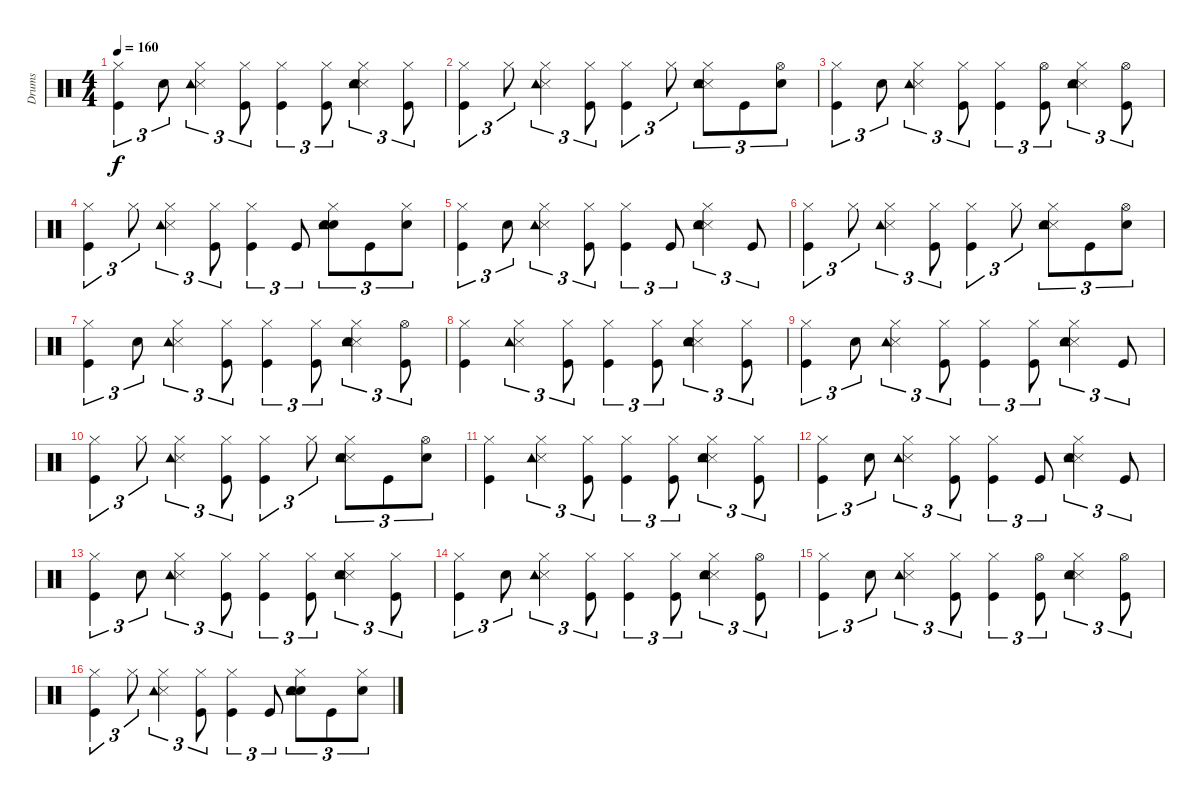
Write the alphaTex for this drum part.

\track ("Drums   " "Drums   ") {instrument percussion}
\staff {score}
\articulation defaults
\ts (4 4)
\tempo 160
\clef neutral
\ks c
("Kick (hit)" "Hi-Hat (closed)").4{tu (3 2) dy f} "Snare (hit) 2".8{tu (3 2)} ("Snare (side stick) 3" "Tambourine (hit)" "Hi-Hat (closed)").4{tu (3 2)} ("Kick (hit)" "Hi-Hat (closed)").8{tu (3 2)} ("Kick (hit)" "Hi-Hat (closed)").4{tu (3 2)} ("Kick (hit)" "Hi-Hat (closed)").8{tu (3 2)} ("Snare (side stick) 3" "Hand Clap (hit)" "Tambourine (hit)" "Hi-Hat (closed)").4{tu (3 2)} ("Kick (hit)" "Hi-Hat (closed)").8{tu (3 2)} |
("Kick (hit)" "Hi-Hat (closed)").4{tu (3 2)} "Hi-Hat (closed)".8{tu (3 2)} ("Snare (side stick) 3" "Tambourine (hit)" "Hi-Hat (closed)").4{tu (3 2)} ("Kick (hit)" "Hi-Hat (closed)").8{tu (3 2)} ("Kick (hit)" "Hi-Hat (closed)").4{tu (3 2)} "Hi-Hat (closed)".8{tu (3 2)} ("Snare (side stick) 3" "Hand Clap (hit)" "Tambourine (hit)" "Hi-Hat (closed)").8{tu (3 2)} "Kick (hit)".8{tu (3 2)} ("Snare (hit) 2" "Hi-Hat (open)").8{tu (3 2)} |
("Kick (hit)" "Hi-Hat (closed)").4{tu (3 2)} "Snare (hit) 2".8{tu (3 2)} ("Snare (side stick) 3" "Tambourine (hit)" "Hi-Hat (closed)").4{tu (3 2)} ("Kick (hit)" "Hi-Hat (closed)").8{tu (3 2)} ("Kick (hit)" "Hi-Hat (closed)").4{tu (3 2)} ("Kick (hit)" "Hi-Hat (open)").8{tu (3 2)} ("Snare (side stick) 3" "Hand Clap (hit)" "Tambourine (hit)" "Hi-Hat (closed)").4{tu (3 2)} ("Kick (hit)" "Hi-Hat (open)").8{tu (3 2)} |
("Kick (hit)" "Hi-Hat (closed)").4{tu (3 2)} "Hi-Hat (closed)".8{tu (3 2)} ("Snare (side stick) 3" "Tambourine (hit)" "Hi-Hat (closed)").4{tu (3 2)} ("Kick (hit)" "Hi-Hat (closed)").8{tu (3 2)} ("Kick (hit)" "Hi-Hat (closed)").4{tu (3 2)} "Kick (hit)".8{tu (3 2)} ("Snare (hit) 2" "Hand Clap (hit)" "Tambourine (hit)" "Hi-Hat (closed)").8{tu (3 2)} "Kick (hit)".8{tu (3 2)} ("Snare (hit) 2" "Hi-Hat (closed)").8{tu (3 2)} |
("Kick (hit)" "Hi-Hat (closed)").4{tu (3 2)} "Snare (hit) 2".8{tu (3 2)} ("Snare (side stick) 3" "Tambourine (hit)" "Hi-Hat (closed)").4{tu (3 2)} ("Kick (hit)" "Hi-Hat (closed)").8{tu (3 2)} ("Kick (hit)" "Hi-Hat (closed)").4{tu (3 2)} "Kick (hit)".8{tu (3 2)} ("Snare (side stick) 3" "Hand Clap (hit)" "Tambourine (hit)" "Hi-Hat (closed)").4{tu (3 2)} "Kick (hit)".8{tu (3 2)} |
("Kick (hit)" "Hi-Hat (closed)").4{tu (3 2)} "Hi-Hat (closed)".8{tu (3 2)} ("Snare (side stick) 3" "Tambourine (hit)" "Hi-Hat (closed)").4{tu (3 2)} ("Kick (hit)" "Hi-Hat (closed)").8{tu (3 2)} ("Kick (hit)" "Hi-Hat (closed)").4{tu (3 2)} "Hi-Hat (closed)".8{tu (3 2)} ("Snare (side stick) 3" "Hand Clap (hit)" "Tambourine (hit)" "Hi-Hat (closed)").8{tu (3 2)} "Kick (hit)".8{tu (3 2)} ("Snare (hit) 2" "Hi-Hat (open)").8{tu (3 2)} |
("Kick (hit)" "Hi-Hat (closed)").4{tu (3 2)} "Snare (hit) 2".8{tu (3 2)} ("Snare (side stick) 3" "Tambourine (hit)" "Hi-Hat (closed)").4{tu (3 2)} ("Kick (hit)" "Hi-Hat (closed)").8{tu (3 2)} ("Kick (hit)" "Hi-Hat (closed)").4{tu (3 2)} ("Kick (hit)" "Hi-Hat (closed)").8{tu (3 2)} ("Snare (side stick) 3" "Hand Clap (hit)" "Tambourine (hit)" "Hi-Hat (closed)").4{tu (3 2)} ("Kick (hit)" "Hi-Hat (open)").8{tu (3 2)} |
("Kick (hit)" "Hi-Hat (closed)").4 ("Snare (side stick) 3" "Tambourine (hit)" "Hi-Hat (closed)").4{tu (3 2)} ("Kick (hit)" "Hi-Hat (closed)").8{tu (3 2)} ("Kick (hit)" "Hi-Hat (closed)").4{tu (3 2)} ("Kick (hit)" "Hi-Hat (closed)").8{tu (3 2)} ("Snare (side stick) 3" "Hand Clap (hit)" "Tambourine (hit)" "Hi-Hat (closed)").4{tu (3 2)} ("Kick (hit)" "Hi-Hat (closed)").8{tu (3 2)} |
("Kick (hit)" "Hi-Hat (closed)").4{tu (3 2)} "Snare (hit) 2".8{tu (3 2)} ("Snare (side stick) 3" "Tambourine (hit)" "Hi-Hat (closed)").4{tu (3 2)} ("Kick (hit)" "Hi-Hat (closed)").8{tu (3 2)} ("Kick (hit)" "Hi-Hat (closed)").4{tu (3 2)} ("Kick (hit)" "Hi-Hat (closed)").8{tu (3 2)} ("Snare (side stick) 3" "Hand Clap (hit)" "Tambourine (hit)" "Hi-Hat (closed)").4{tu (3 2)} "Kick (hit)".8{tu (3 2)} |
("Kick (hit)" "Hi-Hat (closed)").4{tu (3 2)} "Hi-Hat (closed)".8{tu (3 2)} ("Snare (side stick) 3" "Tambourine (hit)" "Hi-Hat (closed)").4{tu (3 2)} ("Kick (hit)" "Hi-Hat (closed)").8{tu (3 2)} ("Kick (hit)" "Hi-Hat (closed)").4{tu (3 2)} "Hi-Hat (closed)".8{tu (3 2)} ("Snare (side stick) 3" "Hand Clap (hit)" "Tambourine (hit)" "Hi-Hat (closed)").8{tu (3 2)} "Kick (hit)".8{tu (3 2)} ("Snare (hit) 2" "Hi-Hat (open)").8{tu (3 2)} |
("Kick (hit)" "Hi-Hat (closed)").4 ("Snare (side stick) 3" "Tambourine (hit)" "Hi-Hat (closed)").4{tu (3 2)} ("Kick (hit)" "Hi-Hat (closed)").8{tu (3 2)} ("Kick (hit)" "Hi-Hat (closed)").4{tu (3 2)} ("Kick (hit)" "Hi-Hat (closed)").8{tu (3 2)} ("Snare (side stick) 3" "Hand Clap (hit)" "Tambourine (hit)" "Hi-Hat (closed)").4{tu (3 2)} ("Kick (hit)" "Hi-Hat (closed)").8{tu (3 2)} |
("Kick (hit)" "Hi-Hat (closed)").4{tu (3 2)} "Snare (hit) 2".8{tu (3 2)} ("Snare (side stick) 3" "Tambourine (hit)" "Hi-Hat (closed)").4{tu (3 2)} ("Kick (hit)" "Hi-Hat (closed)").8{tu (3 2)} ("Kick (hit)" "Hi-Hat (closed)").4{tu (3 2)} "Kick (hit)".8{tu (3 2)} ("Snare (side stick) 3" "Hand Clap (hit)" "Tambourine (hit)" "Hi-Hat (closed)").4{tu (3 2)} "Kick (hit)".8{tu (3 2)} |
("Kick (hit)" "Hi-Hat (closed)").4{tu (3 2)} "Snare (hit) 2".8{tu (3 2)} ("Snare (side stick) 3" "Tambourine (hit)" "Hi-Hat (closed)").4{tu (3 2)} ("Kick (hit)" "Hi-Hat (closed)").8{tu (3 2)} ("Kick (hit)" "Hi-Hat (closed)").4{tu (3 2)} ("Kick (hit)" "Hi-Hat (closed)").8{tu (3 2)} ("Snare (side stick) 3" "Hand Clap (hit)" "Tambourine (hit)" "Hi-Hat (closed)").4{tu (3 2)} ("Kick (hit)" "Hi-Hat (closed)").8{tu (3 2)} |
("Kick (hit)" "Hi-Hat (closed)").4{tu (3 2)} "Snare (hit) 2".8{tu (3 2)} ("Snare (side stick) 3" "Tambourine (hit)" "Hi-Hat (closed)").4{tu (3 2)} ("Kick (hit)" "Hi-Hat (closed)").8{tu (3 2)} ("Kick (hit)" "Hi-Hat (closed)").4{tu (3 2)} ("Kick (hit)" "Hi-Hat (closed)").8{tu (3 2)} ("Snare (side stick) 3" "Hand Clap (hit)" "Tambourine (hit)" "Hi-Hat (closed)").4{tu (3 2)} ("Kick (hit)" "Hi-Hat (open)").8{tu (3 2)} |
("Kick (hit)" "Hi-Hat (closed)").4{tu (3 2)} "Snare (hit) 2".8{tu (3 2)} ("Snare (side stick) 3" "Tambourine (hit)" "Hi-Hat (closed)").4{tu (3 2)} ("Kick (hit)" "Hi-Hat (closed)").8{tu (3 2)} ("Kick (hit)" "Hi-Hat (closed)").4{tu (3 2)} ("Kick (hit)" "Hi-Hat (open)").8{tu (3 2)} ("Snare (side stick) 3" "Hand Clap (hit)" "Tambourine (hit)" "Hi-Hat (closed)").4{tu (3 2)} ("Kick (hit)" "Hi-Hat (open)").8{tu (3 2)} |
("Kick (hit)" "Hi-Hat (closed)").4{tu (3 2)} "Hi-Hat (closed)".8{tu (3 2)} ("Snare (side stick) 3" "Tambourine (hit)" "Hi-Hat (closed)").4{tu (3 2)} ("Kick (hit)" "Hi-Hat (closed)").8{tu (3 2)} ("Kick (hit)" "Hi-Hat (closed)").4{tu (3 2)} "Kick (hit)".8{tu (3 2)} ("Snare (hit) 2" "Hand Clap (hit)" "Tambourine (hit)" "Hi-Hat (closed)").8{tu (3 2)} "Kick (hit)".8{tu (3 2)} ("Snare (hit) 2" "Hi-Hat (closed)").8{tu (3 2)}
